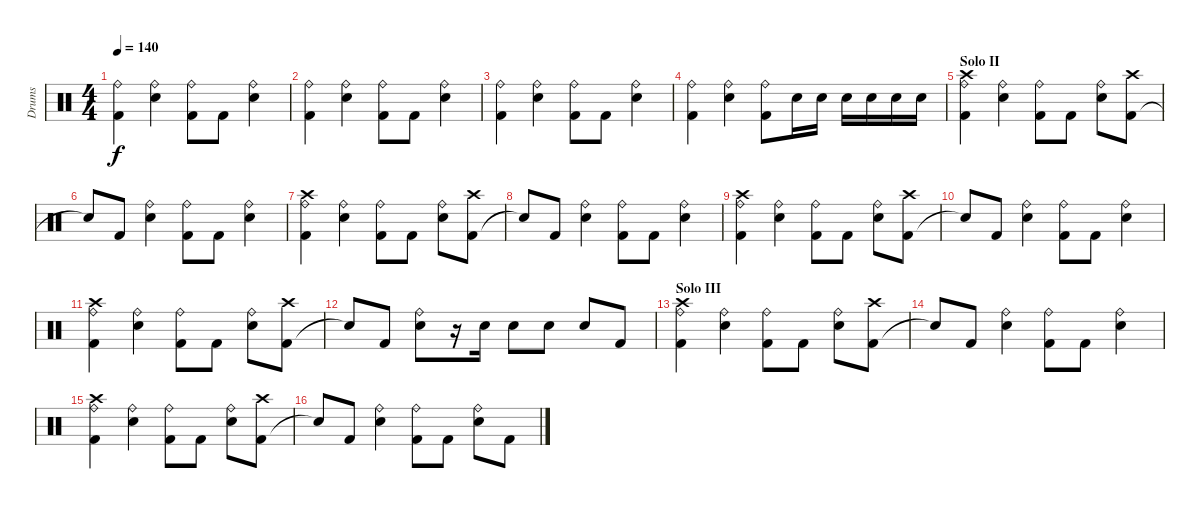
\track ("Drums" "Drums") {instrument percussion}
\staff {score}
\articulation defaults
\ts (4 4)
\tempo 140
\clef neutral
\ks c
("Kick (hit) 2" "Ride (bell)").4{dy f} ("Electric Snare (hit)" "Ride (bell)").4 ("Kick (hit) 2" "Ride (bell)").8 "Kick (hit) 2".8 ("Electric Snare (hit)" "Ride (bell)").4 |
("Kick (hit) 2" "Ride (bell)").4 ("Electric Snare (hit)" "Ride (bell)").4 ("Kick (hit) 2" "Ride (bell)").8 "Kick (hit) 2".8 ("Electric Snare (hit)" "Ride (bell)").4 |
("Kick (hit) 2" "Ride (bell)").4 ("Electric Snare (hit)" "Ride (bell)").4 ("Kick (hit) 2" "Ride (bell)").8 "Kick (hit) 2".8 ("Electric Snare (hit)" "Ride (bell)").4 |
("Kick (hit) 2" "Ride (bell)").4 ("Electric Snare (hit)" "Ride (bell)").4 ("Kick (hit) 2" "Ride (bell)").8 "Electric Snare (hit)".16 "Electric Snare (hit)".16 "Electric Snare (hit)".16 "Electric Snare (hit)".16 "Electric Snare (hit)".16 "Electric Snare (hit)".16 |
\section ("" "Solo II")
("Ride (bell)" "Kick (hit) 2" "Crash high (hit)").4 ("Ride (bell)" "Electric Snare (hit)").4 ("Ride (bell)" "Kick (hit) 2").8 "Kick (hit) 2".8 ("Ride (bell)" "Electric Snare (hit)").8 ("Kick (hit) 2" "Crash high (hit)").8 |
"Snare (hit)"{t}.8 "Kick (hit) 2".8 ("Ride (bell)" "Electric Snare (hit)").4 ("Ride (bell)" "Kick (hit) 2").8 "Kick (hit) 2".8 ("Ride (bell)" "Electric Snare (hit)").4 |
("Ride (bell)" "Kick (hit) 2" "Crash high (hit)").4 ("Ride (bell)" "Electric Snare (hit)").4 ("Ride (bell)" "Kick (hit) 2").8 "Kick (hit) 2".8 ("Ride (bell)" "Electric Snare (hit)").8 ("Kick (hit) 2" "Crash high (hit)").8 |
"Snare (hit)"{t}.8 "Kick (hit) 2".8 ("Ride (bell)" "Electric Snare (hit)").4 ("Ride (bell)" "Kick (hit) 2").8 "Kick (hit) 2".8 ("Ride (bell)" "Electric Snare (hit)").4 |
("Ride (bell)" "Kick (hit) 2" "Crash high (hit)").4 ("Ride (bell)" "Electric Snare (hit)").4 ("Ride (bell)" "Kick (hit) 2").8 "Kick (hit) 2".8 ("Ride (bell)" "Electric Snare (hit)").8 ("Kick (hit) 2" "Crash high (hit)").8 |
"Snare (hit)"{t}.8 "Kick (hit) 2".8 ("Ride (bell)" "Electric Snare (hit)").4 ("Ride (bell)" "Kick (hit) 2").8 "Kick (hit) 2".8 ("Ride (bell)" "Electric Snare (hit)").4 |
("Ride (bell)" "Kick (hit) 2" "Crash high (hit)").4 ("Ride (bell)" "Electric Snare (hit)").4 ("Ride (bell)" "Kick (hit) 2").8 "Kick (hit) 2".8 ("Ride (bell)" "Electric Snare (hit)").8 ("Kick (hit) 2" "Crash high (hit)").8 |
"Snare (hit)"{t}.8 "Kick (hit) 2".8 ("Ride (bell)" "Electric Snare (hit)").8 r.16 "Electric Snare (hit)".16 "Electric Snare (hit)".8 "Electric Snare (hit)".8 "Electric Snare (hit)".8 "Kick (hit) 2".8 |
\section ("" "Solo III")
("Ride (bell)" "Kick (hit) 2" "Crash high (hit)").4 ("Ride (bell)" "Electric Snare (hit)").4 ("Ride (bell)" "Kick (hit) 2").8 "Kick (hit) 2".8 ("Ride (bell)" "Electric Snare (hit)").8 ("Kick (hit) 2" "Crash high (hit)").8 |
"Snare (hit)"{t}.8 "Kick (hit) 2".8 ("Ride (bell)" "Electric Snare (hit)").4 ("Ride (bell)" "Kick (hit) 2").8 "Kick (hit) 2".8 ("Ride (bell)" "Electric Snare (hit)").4 |
("Ride (bell)" "Kick (hit) 2" "Crash high (hit)").4 ("Ride (bell)" "Electric Snare (hit)").4 ("Ride (bell)" "Kick (hit) 2").8 "Kick (hit) 2".8 ("Ride (bell)" "Electric Snare (hit)").8 ("Kick (hit) 2" "Crash high (hit)").8 |
"Snare (hit)"{t}.8 "Kick (hit) 2".8 ("Ride (bell)" "Electric Snare (hit)").4 ("Ride (bell)" "Kick (hit) 2").8 "Kick (hit) 2".8 ("Ride (bell)" "Electric Snare (hit)").8 "Kick (hit) 2".8
